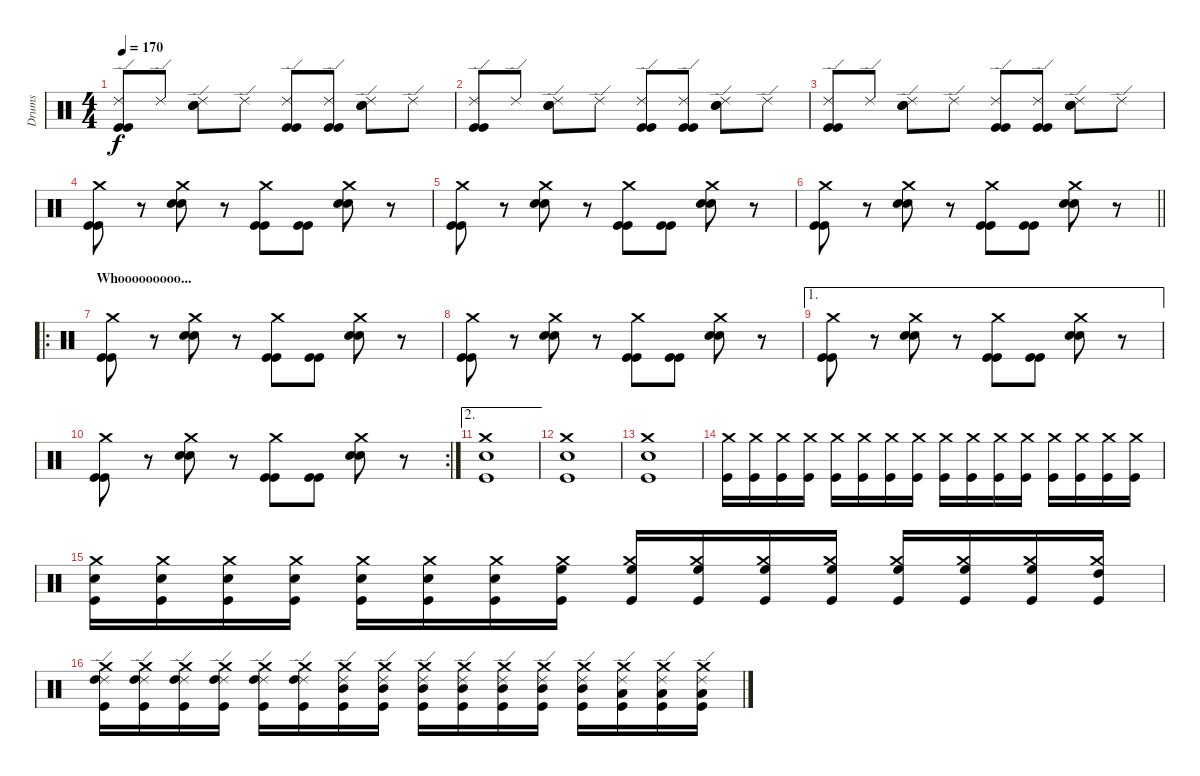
\track ("Drums" "Drums") {instrument percussion}
\staff {score}
\articulation defaults
\ts (4 4)
\tempo 170
\clef neutral
\ks c
("Ride (edge) 2" "Kick (hit)" "Kick (hit)").8{dy f} "Ride (edge) 2".8 ("Ride (edge) 2" "Snare (hit) 2" "Snare (hit) 2").8 "Ride (edge) 2".8 ("Ride (edge) 2" "Kick (hit)" "Kick (hit)").8 ("Ride (edge) 2" "Kick (hit)" "Kick (hit)").8 ("Ride (edge) 2" "Snare (hit) 2" "Snare (hit) 2").8 "Ride (edge) 2".8 |
("Ride (edge) 2" "Kick (hit)" "Kick (hit)").8 "Ride (edge) 2".8 ("Ride (edge) 2" "Snare (hit) 2" "Snare (hit) 2").8 "Ride (edge) 2".8 ("Ride (edge) 2" "Kick (hit)" "Kick (hit)").8 ("Ride (edge) 2" "Kick (hit)" "Kick (hit)").8 ("Ride (edge) 2" "Snare (hit) 2" "Snare (hit) 2").8 "Ride (edge) 2".8 |
("Ride (edge) 2" "Kick (hit)" "Kick (hit)").8 "Ride (edge) 2".8 ("Ride (edge) 2" "Snare (hit) 2" "Snare (hit) 2").8 "Ride (edge) 2".8 ("Ride (edge) 2" "Kick (hit)" "Kick (hit)").8 ("Ride (edge) 2" "Kick (hit)" "Kick (hit)").8 ("Ride (edge) 2" "Snare (hit) 2" "Snare (hit) 2").8 "Ride (edge) 2".8 |
("Crash medium (hit)" "Kick (hit)" "Kick (hit)").8 r.8 ("Crash medium (hit)" "Snare (hit) 2" "Snare (hit) 2").8 r.8 ("Crash medium (hit)" "Kick (hit)" "Kick (hit)").8 ("Kick (hit)" "Kick (hit)").8 ("Crash medium (hit)" "Snare (hit) 2" "Snare (hit) 2").8 r.8 |
("Crash medium (hit)" "Kick (hit)" "Kick (hit)").8 r.8 ("Crash medium (hit)" "Snare (hit) 2" "Snare (hit) 2").8 r.8 ("Crash medium (hit)" "Kick (hit)" "Kick (hit)").8 ("Kick (hit)" "Kick (hit)").8 ("Crash medium (hit)" "Snare (hit) 2" "Snare (hit) 2").8 r.8 |
\barLineRight lightlight
("Crash medium (hit)" "Kick (hit)" "Kick (hit)").8 r.8 ("Crash medium (hit)" "Snare (hit) 2" "Snare (hit) 2").8 r.8 ("Crash medium (hit)" "Kick (hit)" "Kick (hit)").8 ("Kick (hit)" "Kick (hit)").8 ("Crash medium (hit)" "Snare (hit) 2" "Snare (hit) 2").8 r.8 |
\ro
\section ("" "Whooooooooo...")
("Crash medium (hit)" "Kick (hit)" "Kick (hit)").8 r.8 ("Crash medium (hit)" "Snare (hit) 2" "Snare (hit) 2").8 r.8 ("Crash medium (hit)" "Kick (hit)" "Kick (hit)").8 ("Kick (hit)" "Kick (hit)").8 ("Crash medium (hit)" "Snare (hit) 2" "Snare (hit) 2").8 r.8 |
("Crash medium (hit)" "Kick (hit)" "Kick (hit)").8 r.8 ("Crash medium (hit)" "Snare (hit) 2" "Snare (hit) 2").8 r.8 ("Crash medium (hit)" "Kick (hit)" "Kick (hit)").8 ("Kick (hit)" "Kick (hit)").8 ("Crash medium (hit)" "Snare (hit) 2" "Snare (hit) 2").8 r.8 |
\ae 1
("Crash medium (hit)" "Kick (hit)" "Kick (hit)").8 r.8 ("Crash medium (hit)" "Snare (hit) 2" "Snare (hit) 2").8 r.8 ("Crash medium (hit)" "Kick (hit)" "Kick (hit)").8 ("Kick (hit)" "Kick (hit)").8 ("Crash medium (hit)" "Snare (hit) 2" "Snare (hit) 2").8 r.8 |
\rc 2
("Crash medium (hit)" "Kick (hit)" "Kick (hit)").8 r.8 ("Crash medium (hit)" "Snare (hit) 2" "Snare (hit) 2").8 r.8 ("Crash medium (hit)" "Kick (hit)" "Kick (hit)").8 ("Kick (hit)" "Kick (hit)").8 ("Crash medium (hit)" "Snare (hit) 2" "Snare (hit) 2").8 r.8 |
\ae 2
("Snare (hit) 2" "Kick (hit)" "Crash medium (hit)").1 |
("Crash medium (hit)" "Snare (hit) 2" "Kick (hit)").1 |
("Crash medium (hit)" "Snare (hit) 2" "Kick (hit)").1 |
("Crash medium (hit)" "Kick (hit)").16 ("Crash medium (hit)" "Kick (hit)").16 ("Crash medium (hit)" "Kick (hit)").16 ("Crash medium (hit)" "Kick (hit)").16 ("Crash medium (hit)" "Kick (hit)").16 ("Crash medium (hit)" "Kick (hit)").16 ("Crash medium (hit)" "Kick (hit)").16 ("Crash medium (hit)" "Kick (hit)").16 ("Crash medium (hit)" "Kick (hit)").16 ("Crash medium (hit)" "Kick (hit)").16 ("Crash medium (hit)" "Kick (hit)").16 ("Crash medium (hit)" "Kick (hit)").16 ("Crash medium (hit)" "Kick (hit)").16 ("Crash medium (hit)" "Kick (hit)").16 ("Crash medium (hit)" "Kick (hit)").16 ("Crash medium (hit)" "Kick (hit)").16 |
("Crash medium (hit)" "Snare (hit) 2" "Kick (hit)").16 ("Crash medium (hit)" "Snare (hit) 2" "Kick (hit)").16 ("Crash medium (hit)" "Snare (hit) 2" "Kick (hit)").16 ("Crash medium (hit)" "Snare (hit) 2" "Kick (hit)").16 ("Crash medium (hit)" "Snare (hit) 2" "Kick (hit)").16 ("Crash medium (hit)" "Snare (hit) 2" "Kick (hit)").16 ("Crash medium (hit)" "Snare (hit) 2" "Kick (hit)").16 ("Crash medium (hit)" "High Floor Tom (hit)" "Kick (hit)").16 ("Crash medium (hit)" "High Floor Tom (hit)" "Kick (hit)").16 ("Crash medium (hit)" "High Floor Tom (hit)" "Kick (hit)").16 ("Crash medium (hit)" "High Floor Tom (hit)" "Kick (hit)").16 ("Crash medium (hit)" "High Floor Tom (hit)" "Kick (hit)").16 ("Crash medium (hit)" "High Floor Tom (hit)" "Kick (hit)").16 ("Crash medium (hit)" "High Floor Tom (hit)" "Kick (hit)").16 ("Crash medium (hit)" "High Floor Tom (hit)" "Kick (hit)").16 ("Crash medium (hit)" "High Tom (hit)" "Kick (hit)").16 |
("Crash medium (hit)" "Ride (edge) 2" "High Tom (hit)" "Kick (hit)").16 ("Crash medium (hit)" "Ride (edge) 2" "High Tom (hit)" "Kick (hit)").16 ("Crash medium (hit)" "Ride (edge) 2" "High Tom (hit)" "Kick (hit)").16 ("Crash medium (hit)" "Ride (edge) 2" "High Tom (hit)" "Kick (hit)").16 ("Crash medium (hit)" "Ride (edge) 2" "High Tom (hit)" "Kick (hit)").16 ("Crash medium (hit)" "Ride (edge) 2" "High Tom (hit)" "Kick (hit)").16 ("Crash medium (hit)" "Ride (edge) 2" "Mid Tom (hit)" "Kick (hit)").16 ("Crash medium (hit)" "Ride (edge) 2" "Mid Tom (hit)" "Kick (hit)").16 ("Crash medium (hit)" "Ride (edge) 2" "Mid Tom (hit)" "Kick (hit)").16 ("Crash medium (hit)" "Ride (edge) 2" "Mid Tom (hit)" "Kick (hit)").16 ("Crash medium (hit)" "Ride (edge) 2" "Mid Tom (hit)" "Kick (hit)").16 ("Crash medium (hit)" "Ride (edge) 2" "Mid Tom (hit)" "Kick (hit)").16 ("Crash medium (hit)" "Ride (edge) 2" "Mid Tom (hit)" "Kick (hit)").16 ("Crash medium (hit)" "Ride (edge) 2" "Low Tom (hit)" "Kick (hit)").16 ("Crash medium (hit)" "Ride (edge) 2" "Low Tom (hit)" "Kick (hit)").16 ("Crash medium (hit)" "Ride (edge) 2" "Low Tom (hit)" "Kick (hit)").16
